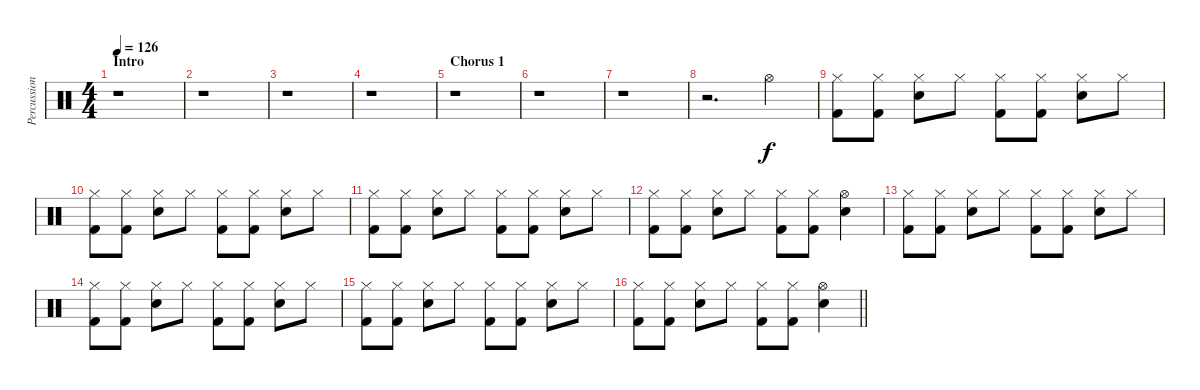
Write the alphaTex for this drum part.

\track ("Percussion" "Percussion") {instrument percussion}
\staff {score}
\articulation defaults
\ts (4 4)
\section ("" "Intro")
\tempo 126
\clef neutral
\ks c
r.1{dy f} |
r.1 |
r.1 |
r.1 |
\section ("" "Chorus 1")
r.1 |
r.1 |
r.1 |
r.2{d} "Hi-Hat (open)".4 |
("Hi-Hat (closed)" "Kick (hit) 2").8 ("Hi-Hat (closed)" "Kick (hit) 2").8 ("Hi-Hat (closed)" "Snare (hit) 2").8 "Hi-Hat (closed)".8 ("Hi-Hat (closed)" "Kick (hit) 2").8 ("Hi-Hat (closed)" "Kick (hit) 2").8 ("Hi-Hat (closed)" "Snare (hit) 2").8 "Hi-Hat (closed)".8 |
("Hi-Hat (closed)" "Kick (hit) 2").8 ("Hi-Hat (closed)" "Kick (hit) 2").8 ("Hi-Hat (closed)" "Snare (hit) 2").8 "Hi-Hat (closed)".8 ("Hi-Hat (closed)" "Kick (hit) 2").8 ("Hi-Hat (closed)" "Kick (hit) 2").8 ("Hi-Hat (closed)" "Snare (hit) 2").8 "Hi-Hat (closed)".8 |
("Hi-Hat (closed)" "Kick (hit) 2").8 ("Hi-Hat (closed)" "Kick (hit) 2").8 ("Hi-Hat (closed)" "Snare (hit) 2").8 "Hi-Hat (closed)".8 ("Hi-Hat (closed)" "Kick (hit) 2").8 ("Hi-Hat (closed)" "Kick (hit) 2").8 ("Hi-Hat (closed)" "Snare (hit) 2").8 "Hi-Hat (closed)".8 |
("Hi-Hat (closed)" "Kick (hit) 2").8 ("Hi-Hat (closed)" "Kick (hit) 2").8 ("Hi-Hat (closed)" "Snare (hit) 2").8 "Hi-Hat (closed)".8 ("Hi-Hat (closed)" "Kick (hit) 2").8 ("Hi-Hat (closed)" "Kick (hit) 2").8 ("Hi-Hat (open)" "Snare (hit) 2").4 |
("Hi-Hat (closed)" "Kick (hit) 2").8 ("Hi-Hat (closed)" "Kick (hit) 2").8 ("Hi-Hat (closed)" "Snare (hit) 2").8 "Hi-Hat (closed)".8 ("Hi-Hat (closed)" "Kick (hit) 2").8 ("Hi-Hat (closed)" "Kick (hit) 2").8 ("Hi-Hat (closed)" "Snare (hit) 2").8 "Hi-Hat (closed)".8 |
("Hi-Hat (closed)" "Kick (hit) 2").8 ("Hi-Hat (closed)" "Kick (hit) 2").8 ("Hi-Hat (closed)" "Snare (hit) 2").8 "Hi-Hat (closed)".8 ("Hi-Hat (closed)" "Kick (hit) 2").8 ("Hi-Hat (closed)" "Kick (hit) 2").8 ("Hi-Hat (closed)" "Snare (hit) 2").8 "Hi-Hat (closed)".8 |
("Hi-Hat (closed)" "Kick (hit) 2").8 ("Hi-Hat (closed)" "Kick (hit) 2").8 ("Hi-Hat (closed)" "Snare (hit) 2").8 "Hi-Hat (closed)".8 ("Hi-Hat (closed)" "Kick (hit) 2").8 ("Hi-Hat (closed)" "Kick (hit) 2").8 ("Hi-Hat (closed)" "Snare (hit) 2").8 "Hi-Hat (closed)".8 |
\barLineRight lightlight
("Hi-Hat (closed)" "Kick (hit) 2").8 ("Hi-Hat (closed)" "Kick (hit) 2").8 ("Hi-Hat (closed)" "Snare (hit) 2").8 "Hi-Hat (closed)".8 ("Hi-Hat (closed)" "Kick (hit) 2").8 ("Hi-Hat (closed)" "Kick (hit) 2").8 ("Hi-Hat (open)" "Snare (hit) 2").4
